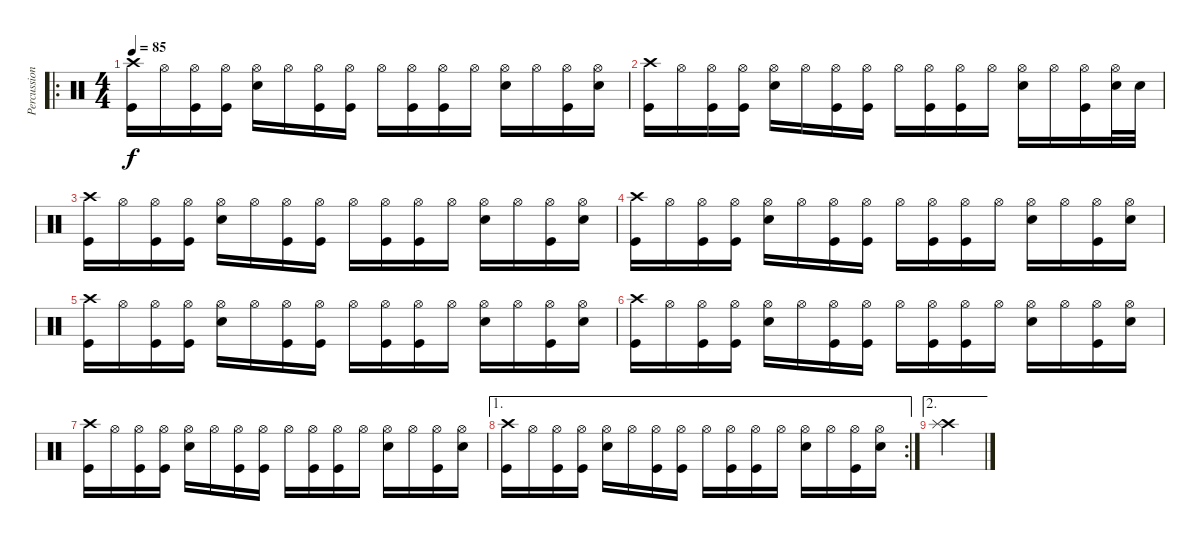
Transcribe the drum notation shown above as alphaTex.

\track ("Percussion" "Percussion") {instrument percussion}
\staff {score}
\articulation defaults
\ro
\ts (4 4)
\tempo 85
\clef neutral
\ks c
("Crash high (hit)" "Kick (hit)").16{dy f} "Hi-Hat (open)".16 ("Hi-Hat (open)" "Kick (hit)").16 ("Hi-Hat (open)" "Kick (hit)").16 ("Hi-Hat (open)" "Snare (hit) 2").16 "Hi-Hat (open)".16 ("Hi-Hat (open)" "Kick (hit)").16 ("Hi-Hat (open)" "Kick (hit)").16 "Hi-Hat (open)".16 ("Hi-Hat (open)" "Kick (hit)").16 ("Hi-Hat (open)" "Kick (hit)").16 "Hi-Hat (open)".16 ("Hi-Hat (open)" "Snare (hit) 2").16 "Hi-Hat (open)".16 ("Hi-Hat (open)" "Kick (hit)").16 ("Hi-Hat (open)" "Snare (hit) 2").16 |
("Crash high (hit)" "Kick (hit)").16 "Hi-Hat (open)".16 ("Hi-Hat (open)" "Kick (hit)").16 ("Hi-Hat (open)" "Kick (hit)").16 ("Hi-Hat (open)" "Snare (hit) 2").16 "Hi-Hat (open)".16 ("Hi-Hat (open)" "Kick (hit)").16 ("Hi-Hat (open)" "Kick (hit)").16 "Hi-Hat (open)".16 ("Hi-Hat (open)" "Kick (hit)").16 ("Hi-Hat (open)" "Kick (hit)").16 "Hi-Hat (open)".16 ("Hi-Hat (open)" "Snare (hit) 2").16 "Hi-Hat (open)".16 ("Hi-Hat (open)" "Kick (hit)").16 ("Hi-Hat (open)" "Snare (hit) 2").32 "Snare (hit) 2".32 |
("Crash high (hit)" "Kick (hit)").16 "Hi-Hat (open)".16 ("Hi-Hat (open)" "Kick (hit)").16 ("Hi-Hat (open)" "Kick (hit)").16 ("Hi-Hat (open)" "Snare (hit) 2").16 "Hi-Hat (open)".16 ("Hi-Hat (open)" "Kick (hit)").16 ("Hi-Hat (open)" "Kick (hit)").16 "Hi-Hat (open)".16 ("Hi-Hat (open)" "Kick (hit)").16 ("Hi-Hat (open)" "Kick (hit)").16 "Hi-Hat (open)".16 ("Hi-Hat (open)" "Snare (hit) 2").16 "Hi-Hat (open)".16 ("Hi-Hat (open)" "Kick (hit)").16 ("Hi-Hat (open)" "Snare (hit) 2").16 |
("Crash high (hit)" "Kick (hit)").16 "Hi-Hat (open)".16 ("Hi-Hat (open)" "Kick (hit)").16 ("Hi-Hat (open)" "Kick (hit)").16 ("Hi-Hat (open)" "Snare (hit) 2").16 "Hi-Hat (open)".16 ("Hi-Hat (open)" "Kick (hit)").16 ("Hi-Hat (open)" "Kick (hit)").16 "Hi-Hat (open)".16 ("Hi-Hat (open)" "Kick (hit)").16 ("Hi-Hat (open)" "Kick (hit)").16 "Hi-Hat (open)".16 ("Hi-Hat (open)" "Snare (hit) 2").16 "Hi-Hat (open)".16 ("Hi-Hat (open)" "Kick (hit)").16 ("Hi-Hat (open)" "Snare (hit) 2").16 |
("Crash high (hit)" "Kick (hit)").16 "Hi-Hat (open)".16 ("Hi-Hat (open)" "Kick (hit)").16 ("Hi-Hat (open)" "Kick (hit)").16 ("Hi-Hat (open)" "Snare (hit) 2").16 "Hi-Hat (open)".16 ("Hi-Hat (open)" "Kick (hit)").16 ("Hi-Hat (open)" "Kick (hit)").16 "Hi-Hat (open)".16 ("Hi-Hat (open)" "Kick (hit)").16 ("Hi-Hat (open)" "Kick (hit)").16 "Hi-Hat (open)".16 ("Hi-Hat (open)" "Snare (hit) 2").16 "Hi-Hat (open)".16 ("Hi-Hat (open)" "Kick (hit)").16 ("Hi-Hat (open)" "Snare (hit) 2").16 |
("Crash high (hit)" "Kick (hit)").16 "Hi-Hat (open)".16 ("Hi-Hat (open)" "Kick (hit)").16 ("Hi-Hat (open)" "Kick (hit)").16 ("Hi-Hat (open)" "Snare (hit) 2").16 "Hi-Hat (open)".16 ("Hi-Hat (open)" "Kick (hit)").16 ("Hi-Hat (open)" "Kick (hit)").16 "Hi-Hat (open)".16 ("Hi-Hat (open)" "Kick (hit)").16 ("Hi-Hat (open)" "Kick (hit)").16 "Hi-Hat (open)".16 ("Hi-Hat (open)" "Snare (hit) 2").16 "Hi-Hat (open)".16 ("Hi-Hat (open)" "Kick (hit)").16 ("Hi-Hat (open)" "Snare (hit) 2").16 |
("Crash high (hit)" "Kick (hit)").16 "Hi-Hat (open)".16 ("Hi-Hat (open)" "Kick (hit)").16 ("Hi-Hat (open)" "Kick (hit)").16 ("Hi-Hat (open)" "Snare (hit) 2").16 "Hi-Hat (open)".16 ("Hi-Hat (open)" "Kick (hit)").16 ("Hi-Hat (open)" "Kick (hit)").16 "Hi-Hat (open)".16 ("Hi-Hat (open)" "Kick (hit)").16 ("Hi-Hat (open)" "Kick (hit)").16 "Hi-Hat (open)".16 ("Hi-Hat (open)" "Snare (hit) 2").16 "Hi-Hat (open)".16 ("Hi-Hat (open)" "Kick (hit)").16 ("Hi-Hat (open)" "Snare (hit) 2").16 |
\ae 1
\rc 2
("Crash high (hit)" "Kick (hit)").16 "Hi-Hat (open)".16 ("Hi-Hat (open)" "Kick (hit)").16 ("Hi-Hat (open)" "Kick (hit)").16 ("Hi-Hat (open)" "Snare (hit) 2").16 "Hi-Hat (open)".16 ("Hi-Hat (open)" "Kick (hit)").16 ("Hi-Hat (open)" "Kick (hit)").16 "Hi-Hat (open)".16 ("Hi-Hat (open)" "Kick (hit)").16 ("Hi-Hat (open)" "Kick (hit)").16 "Hi-Hat (open)".16 ("Hi-Hat (open)" "Snare (hit) 2").16 "Hi-Hat (open)".16 ("Hi-Hat (open)" "Kick (hit)").16 ("Hi-Hat (open)" "Snare (hit) 2").16 |
\ae 2
("Crash high (hit)" "Splash (hit)").4
